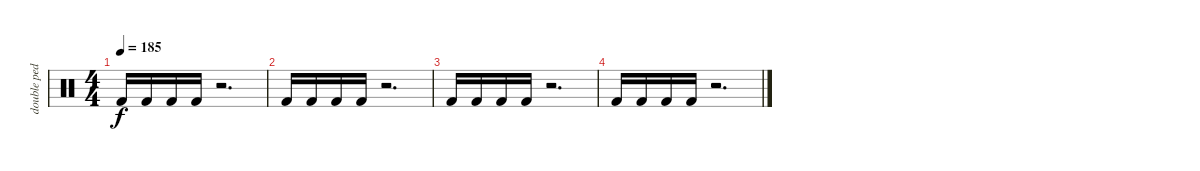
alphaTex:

\track ("double pedale" "double ped") {instrument percussion}
\staff {score}
\articulation defaults
\ts (4 4)
\tempo 185
\clef neutral
\ks c "Kick (hit) 2".16{dy f} "Kick (hit) 2".16 "Kick (hit) 2".16 "Kick (hit) 2".16
r.2{d} |
"Kick (hit) 2".16 "Kick (hit) 2".16 "Kick (hit) 2".16 "Kick (hit) 2".16 r.2{d} |
"Kick (hit) 2".16 "Kick (hit) 2".16 "Kick (hit) 2".16 "Kick (hit) 2".16 r.2{d} |
"Kick (hit) 2".16 "Kick (hit) 2".16 "Kick (hit) 2".16 "Kick (hit) 2".16 r.2{d}
